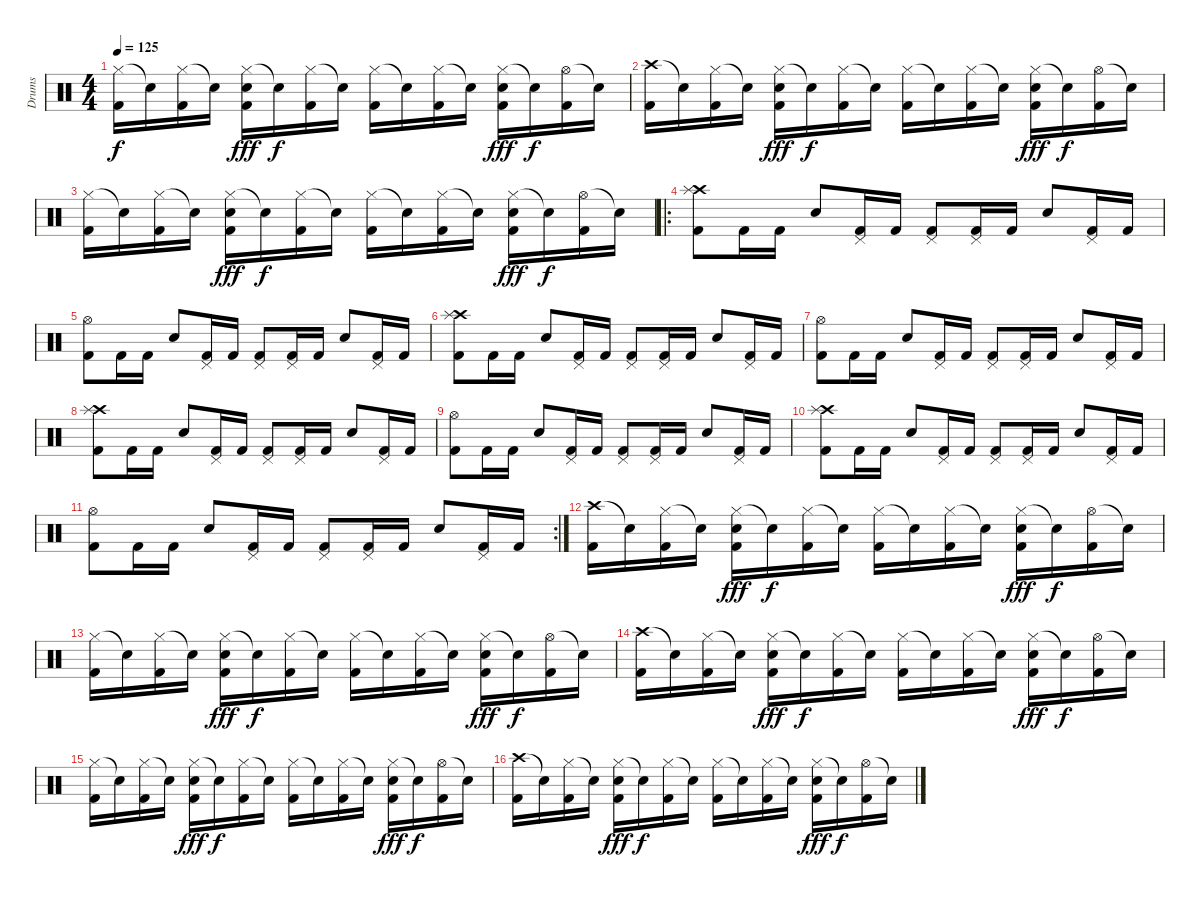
\track ("Drums" "Drums") {instrument percussion}
\staff {score}
\articulation defaults
\ts (4 4)
\tempo 125
\clef neutral
\ks c
("Hi-Hat (closed)" "Kick (hit) 2").16{dy f} "Snare (hit)"{t}.16 ("Hi-Hat (closed)" "Kick (hit) 2").16 "Snare (hit)"{t}.16 ("Hi-Hat (closed)" "Electric Snare (hit)" "Kick (hit) 2").16{dy fff} "Snare (hit)"{t}.16{dy f} ("Hi-Hat (closed)" "Kick (hit) 2").16 "Snare (hit)"{t}.16 ("Hi-Hat (closed)" "Kick (hit) 2").16 "Snare (hit)"{t}.16 ("Hi-Hat (closed)" "Kick (hit) 2").16 "Snare (hit)"{t}.16 ("Hi-Hat (closed)" "Electric Snare (hit)" "Kick (hit) 2").16{dy fff} "Snare (hit)"{t}.16{dy f} ("Hi-Hat (open)" "Kick (hit) 2").16 "Snare (hit)"{t}.16 |
("Crash high (hit)" "Kick (hit) 2").16 "Snare (hit)"{t}.16 ("Hi-Hat (closed)" "Kick (hit) 2").16 "Snare (hit)"{t}.16 ("Hi-Hat (closed)" "Electric Snare (hit)" "Kick (hit) 2").16{dy fff} "Snare (hit)"{t}.16{dy f} ("Hi-Hat (closed)" "Kick (hit) 2").16 "Snare (hit)"{t}.16 ("Hi-Hat (closed)" "Kick (hit) 2").16 "Snare (hit)"{t}.16 ("Hi-Hat (closed)" "Kick (hit) 2").16 "Snare (hit)"{t}.16 ("Hi-Hat (closed)" "Electric Snare (hit)" "Kick (hit) 2").16{dy fff} "Snare (hit)"{t}.16{dy f} ("Hi-Hat (open)" "Kick (hit) 2").16 "Snare (hit)"{t}.16 |
("Hi-Hat (closed)" "Kick (hit) 2").16 "Snare (hit)"{t}.16 ("Hi-Hat (closed)" "Kick (hit) 2").16 "Snare (hit)"{t}.16 ("Hi-Hat (closed)" "Electric Snare (hit)" "Kick (hit) 2").16{dy fff} "Snare (hit)"{t}.16{dy f} ("Hi-Hat (closed)" "Kick (hit) 2").16 "Snare (hit)"{t}.16 ("Hi-Hat (closed)" "Kick (hit) 2").16 "Snare (hit)"{t}.16 ("Hi-Hat (closed)" "Kick (hit) 2").16 "Snare (hit)"{t}.16 ("Hi-Hat (closed)" "Electric Snare (hit)" "Kick (hit) 2").16{dy fff} "Snare (hit)"{t}.16{dy f} ("Hi-Hat (open)" "Kick (hit) 2").16 "Snare (hit)"{t}.16 |
\ro
("Crash high (hit)" "Splash (hit)" "Kick (hit) 2").8 "Kick (hit) 2".16 "Kick (hit) 2".16 "Electric Snare (hit)".8 ("Pedal Hi-Hat (hit)" "Kick (hit) 2").16 "Kick (hit) 2".16 ("Pedal Hi-Hat (hit)" "Kick (hit) 2").8 ("Pedal Hi-Hat (hit)" "Kick (hit) 2").16 "Kick (hit) 2".16 "Electric Snare (hit)".8 ("Pedal Hi-Hat (hit)" "Kick (hit) 2").16 "Kick (hit) 2".16 |
("Hi-Hat (open)" "Kick (hit) 2").8 "Kick (hit) 2".16 "Kick (hit) 2".16 "Electric Snare (hit)".8 ("Pedal Hi-Hat (hit)" "Kick (hit) 2").16 "Kick (hit) 2".16 ("Pedal Hi-Hat (hit)" "Kick (hit) 2").8 ("Pedal Hi-Hat (hit)" "Kick (hit) 2").16 "Kick (hit) 2".16 "Electric Snare (hit)".8 ("Pedal Hi-Hat (hit)" "Kick (hit) 2").16 "Kick (hit) 2".16 |
("Crash high (hit)" "Splash (hit)" "Kick (hit) 2").8 "Kick (hit) 2".16 "Kick (hit) 2".16 "Electric Snare (hit)".8 ("Pedal Hi-Hat (hit)" "Kick (hit) 2").16 "Kick (hit) 2".16 ("Pedal Hi-Hat (hit)" "Kick (hit) 2").8 ("Pedal Hi-Hat (hit)" "Kick (hit) 2").16 "Kick (hit) 2".16 "Electric Snare (hit)".8 ("Pedal Hi-Hat (hit)" "Kick (hit) 2").16 "Kick (hit) 2".16 |
("Hi-Hat (open)" "Kick (hit) 2").8 "Kick (hit) 2".16 "Kick (hit) 2".16 "Electric Snare (hit)".8 ("Pedal Hi-Hat (hit)" "Kick (hit) 2").16 "Kick (hit) 2".16 ("Pedal Hi-Hat (hit)" "Kick (hit) 2").8 ("Pedal Hi-Hat (hit)" "Kick (hit) 2").16 "Kick (hit) 2".16 "Electric Snare (hit)".8 ("Pedal Hi-Hat (hit)" "Kick (hit) 2").16 "Kick (hit) 2".16 |
("Crash high (hit)" "Splash (hit)" "Kick (hit) 2").8 "Kick (hit) 2".16 "Kick (hit) 2".16 "Electric Snare (hit)".8 ("Pedal Hi-Hat (hit)" "Kick (hit) 2").16 "Kick (hit) 2".16 ("Pedal Hi-Hat (hit)" "Kick (hit) 2").8 ("Pedal Hi-Hat (hit)" "Kick (hit) 2").16 "Kick (hit) 2".16 "Electric Snare (hit)".8 ("Pedal Hi-Hat (hit)" "Kick (hit) 2").16 "Kick (hit) 2".16 |
("Hi-Hat (open)" "Kick (hit) 2").8 "Kick (hit) 2".16 "Kick (hit) 2".16 "Electric Snare (hit)".8 ("Pedal Hi-Hat (hit)" "Kick (hit) 2").16 "Kick (hit) 2".16 ("Pedal Hi-Hat (hit)" "Kick (hit) 2").8 ("Pedal Hi-Hat (hit)" "Kick (hit) 2").16 "Kick (hit) 2".16 "Electric Snare (hit)".8 ("Pedal Hi-Hat (hit)" "Kick (hit) 2").16 "Kick (hit) 2".16 |
("Crash high (hit)" "Splash (hit)" "Kick (hit) 2").8 "Kick (hit) 2".16 "Kick (hit) 2".16 "Electric Snare (hit)".8 ("Pedal Hi-Hat (hit)" "Kick (hit) 2").16 "Kick (hit) 2".16 ("Pedal Hi-Hat (hit)" "Kick (hit) 2").8 ("Pedal Hi-Hat (hit)" "Kick (hit) 2").16 "Kick (hit) 2".16 "Electric Snare (hit)".8 ("Pedal Hi-Hat (hit)" "Kick (hit) 2").16 "Kick (hit) 2".16 |
\rc 2
("Hi-Hat (open)" "Kick (hit) 2").8 "Kick (hit) 2".16 "Kick (hit) 2".16 "Electric Snare (hit)".8 ("Pedal Hi-Hat (hit)" "Kick (hit) 2").16 "Kick (hit) 2".16 ("Pedal Hi-Hat (hit)" "Kick (hit) 2").8 ("Pedal Hi-Hat (hit)" "Kick (hit) 2").16 "Kick (hit) 2".16 "Electric Snare (hit)".8 ("Pedal Hi-Hat (hit)" "Kick (hit) 2").16 "Kick (hit) 2".16 |
("Crash high (hit)" "Kick (hit) 2").16 "Snare (hit)"{t}.16 ("Hi-Hat (closed)" "Kick (hit) 2").16 "Snare (hit)"{t}.16 ("Hi-Hat (closed)" "Electric Snare (hit)" "Kick (hit) 2").16{dy fff} "Snare (hit)"{t}.16{dy f} ("Hi-Hat (closed)" "Kick (hit) 2").16 "Snare (hit)"{t}.16 ("Hi-Hat (closed)" "Kick (hit) 2").16 "Snare (hit)"{t}.16 ("Hi-Hat (closed)" "Kick (hit) 2").16 "Snare (hit)"{t}.16 ("Hi-Hat (closed)" "Electric Snare (hit)" "Kick (hit) 2").16{dy fff} "Snare (hit)"{t}.16{dy f} ("Hi-Hat (open)" "Kick (hit) 2").16 "Snare (hit)"{t}.16 |
("Hi-Hat (closed)" "Kick (hit) 2").16 "Snare (hit)"{t}.16 ("Hi-Hat (closed)" "Kick (hit) 2").16 "Snare (hit)"{t}.16 ("Hi-Hat (closed)" "Electric Snare (hit)" "Kick (hit) 2").16{dy fff} "Snare (hit)"{t}.16{dy f} ("Hi-Hat (closed)" "Kick (hit) 2").16 "Snare (hit)"{t}.16 ("Hi-Hat (closed)" "Kick (hit) 2").16 "Snare (hit)"{t}.16 ("Hi-Hat (closed)" "Kick (hit) 2").16 "Snare (hit)"{t}.16 ("Hi-Hat (closed)" "Electric Snare (hit)" "Kick (hit) 2").16{dy fff} "Snare (hit)"{t}.16{dy f} ("Hi-Hat (open)" "Kick (hit) 2").16 "Snare (hit)"{t}.16 |
("Crash high (hit)" "Kick (hit) 2").16 "Snare (hit)"{t}.16 ("Hi-Hat (closed)" "Kick (hit) 2").16 "Snare (hit)"{t}.16 ("Hi-Hat (closed)" "Electric Snare (hit)" "Kick (hit) 2").16{dy fff} "Snare (hit)"{t}.16{dy f} ("Hi-Hat (closed)" "Kick (hit) 2").16 "Snare (hit)"{t}.16 ("Hi-Hat (closed)" "Kick (hit) 2").16 "Snare (hit)"{t}.16 ("Hi-Hat (closed)" "Kick (hit) 2").16 "Snare (hit)"{t}.16 ("Hi-Hat (closed)" "Electric Snare (hit)" "Kick (hit) 2").16{dy fff} "Snare (hit)"{t}.16{dy f} ("Hi-Hat (open)" "Kick (hit) 2").16 "Snare (hit)"{t}.16 |
("Hi-Hat (closed)" "Kick (hit) 2").16 "Snare (hit)"{t}.16 ("Hi-Hat (closed)" "Kick (hit) 2").16 "Snare (hit)"{t}.16 ("Hi-Hat (closed)" "Electric Snare (hit)" "Kick (hit) 2").16{dy fff} "Snare (hit)"{t}.16{dy f} ("Hi-Hat (closed)" "Kick (hit) 2").16 "Snare (hit)"{t}.16 ("Hi-Hat (closed)" "Kick (hit) 2").16 "Snare (hit)"{t}.16 ("Hi-Hat (closed)" "Kick (hit) 2").16 "Snare (hit)"{t}.16 ("Hi-Hat (closed)" "Electric Snare (hit)" "Kick (hit) 2").16{dy fff} "Snare (hit)"{t}.16{dy f} ("Hi-Hat (open)" "Kick (hit) 2").16 "Snare (hit)"{t}.16 |
("Crash high (hit)" "Kick (hit) 2").16 "Snare (hit)"{t}.16 ("Hi-Hat (closed)" "Kick (hit) 2").16 "Snare (hit)"{t}.16 ("Hi-Hat (closed)" "Electric Snare (hit)" "Kick (hit) 2").16{dy fff} "Snare (hit)"{t}.16{dy f} ("Hi-Hat (closed)" "Kick (hit) 2").16 "Snare (hit)"{t}.16 ("Hi-Hat (closed)" "Kick (hit) 2").16 "Snare (hit)"{t}.16 ("Hi-Hat (closed)" "Kick (hit) 2").16 "Snare (hit)"{t}.16 ("Hi-Hat (closed)" "Electric Snare (hit)" "Kick (hit) 2").16{dy fff} "Snare (hit)"{t}.16{dy f} ("Hi-Hat (open)" "Kick (hit) 2").16 "Snare (hit)"{t}.16
